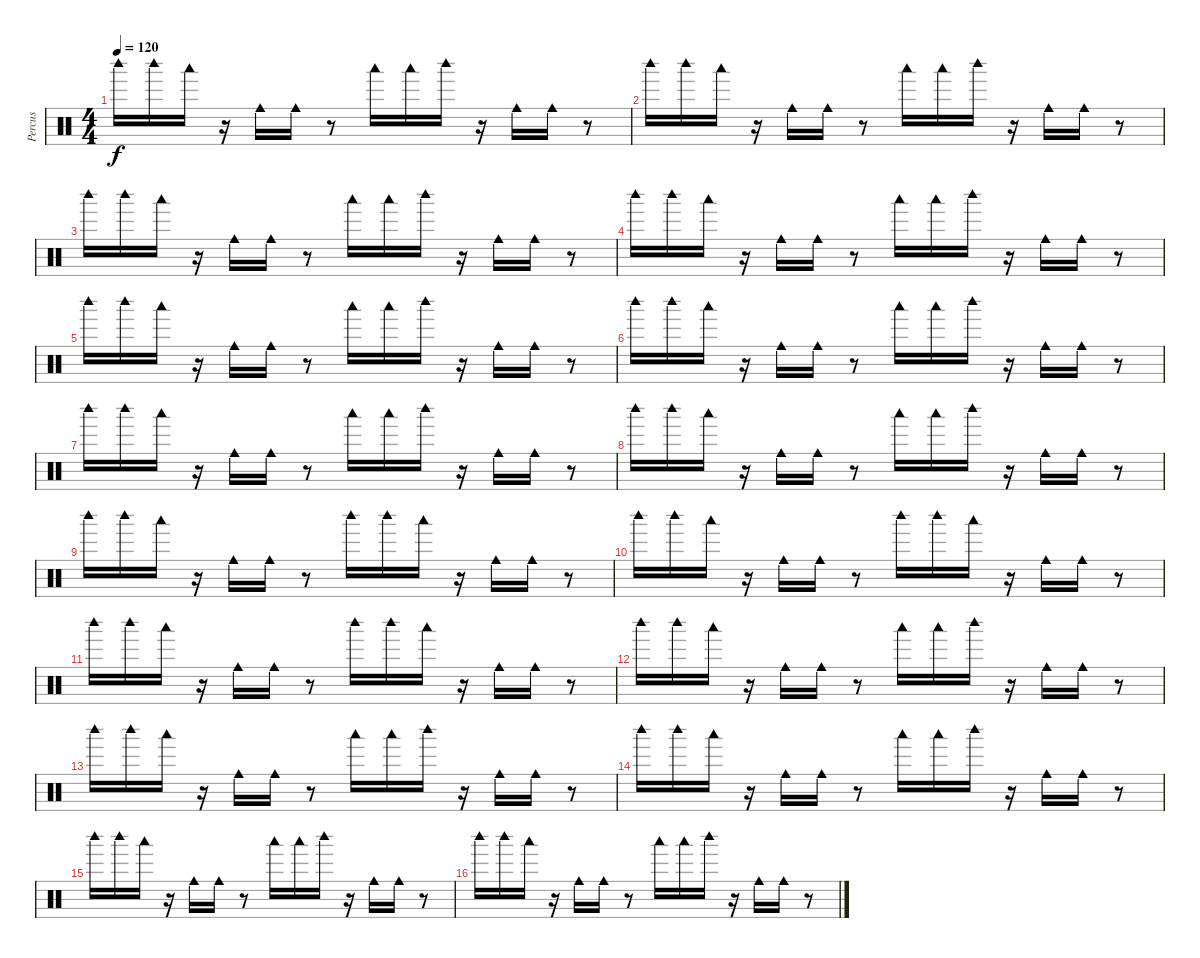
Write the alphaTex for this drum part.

\track ("Percus" "Percus") {instrument percussion}
\staff {score}
\articulation defaults
\ts (4 4)
\tempo 120
\clef neutral
\ks c "Woodblock high (hit)".16{dy f} "Woodblock high (hit)".16 "Woodblock low (hit)".16
r.16 "Cowbell medium (hit)".16 "Cowbell medium (hit)".16 r.8 "Woodblock low (hit)".16 "Woodblock low (hit)".16 "Woodblock high (hit)".16 r.16 "Cowbell medium (hit)".16 "Cowbell medium (hit)".16 r.8 |
"Woodblock high (hit)".16 "Woodblock high (hit)".16 "Woodblock low (hit)".16 r.16 "Cowbell medium (hit)".16 "Cowbell medium (hit)".16 r.8 "Woodblock low (hit)".16 "Woodblock low (hit)".16 "Woodblock high (hit)".16 r.16 "Cowbell medium (hit)".16 "Cowbell medium (hit)".16 r.8 |
"Woodblock high (hit)".16 "Woodblock high (hit)".16 "Woodblock low (hit)".16 r.16 "Cowbell medium (hit)".16 "Cowbell medium (hit)".16 r.8 "Woodblock low (hit)".16 "Woodblock low (hit)".16 "Woodblock high (hit)".16 r.16 "Cowbell medium (hit)".16 "Cowbell medium (hit)".16 r.8 |
"Woodblock high (hit)".16 "Woodblock high (hit)".16 "Woodblock low (hit)".16 r.16 "Cowbell medium (hit)".16 "Cowbell medium (hit)".16 r.8 "Woodblock low (hit)".16 "Woodblock low (hit)".16 "Woodblock high (hit)".16 r.16 "Cowbell medium (hit)".16 "Cowbell medium (hit)".16 r.8 |
"Woodblock high (hit)".16 "Woodblock high (hit)".16 "Woodblock low (hit)".16 r.16 "Cowbell medium (hit)".16 "Cowbell medium (hit)".16 r.8 "Woodblock low (hit)".16 "Woodblock low (hit)".16 "Woodblock high (hit)".16 r.16 "Cowbell medium (hit)".16 "Cowbell medium (hit)".16 r.8 |
"Woodblock high (hit)".16 "Woodblock high (hit)".16 "Woodblock low (hit)".16 r.16 "Cowbell medium (hit)".16 "Cowbell medium (hit)".16 r.8 "Woodblock low (hit)".16 "Woodblock low (hit)".16 "Woodblock high (hit)".16 r.16 "Cowbell medium (hit)".16 "Cowbell medium (hit)".16 r.8 |
"Woodblock high (hit)".16 "Woodblock high (hit)".16 "Woodblock low (hit)".16 r.16 "Cowbell medium (hit)".16 "Cowbell medium (hit)".16 r.8 "Woodblock low (hit)".16 "Woodblock low (hit)".16 "Woodblock high (hit)".16 r.16 "Cowbell medium (hit)".16 "Cowbell medium (hit)".16 r.8 |
"Woodblock high (hit)".16 "Woodblock high (hit)".16 "Woodblock low (hit)".16 r.16 "Cowbell medium (hit)".16 "Cowbell medium (hit)".16 r.8 "Woodblock low (hit)".16 "Woodblock low (hit)".16 "Woodblock high (hit)".16 r.16 "Cowbell medium (hit)".16 "Cowbell medium (hit)".16 r.8 |
"Woodblock high (hit)".16 "Woodblock high (hit)".16 "Woodblock low (hit)".16 r.16 "Cowbell medium (hit)".16 "Cowbell medium (hit)".16 r.8 "Woodblock high (hit)".16 "Woodblock high (hit)".16 "Woodblock low (hit)".16 r.16 "Cowbell medium (hit)".16 "Cowbell medium (hit)".16 r.8 |
"Woodblock high (hit)".16 "Woodblock high (hit)".16 "Woodblock low (hit)".16 r.16 "Cowbell medium (hit)".16 "Cowbell medium (hit)".16 r.8 "Woodblock high (hit)".16 "Woodblock high (hit)".16 "Woodblock low (hit)".16 r.16 "Cowbell medium (hit)".16 "Cowbell medium (hit)".16 r.8 |
"Woodblock high (hit)".16 "Woodblock high (hit)".16 "Woodblock low (hit)".16 r.16 "Cowbell medium (hit)".16 "Cowbell medium (hit)".16 r.8 "Woodblock high (hit)".16 "Woodblock high (hit)".16 "Woodblock low (hit)".16 r.16 "Cowbell medium (hit)".16 "Cowbell medium (hit)".16 r.8 |
"Woodblock high (hit)".16 "Woodblock high (hit)".16 "Woodblock low (hit)".16 r.16 "Cowbell medium (hit)".16 "Cowbell medium (hit)".16 r.8 "Woodblock low (hit)".16 "Woodblock low (hit)".16 "Woodblock high (hit)".16 r.16 "Cowbell medium (hit)".16 "Cowbell medium (hit)".16 r.8 |
"Woodblock high (hit)".16 "Woodblock high (hit)".16 "Woodblock low (hit)".16 r.16 "Cowbell medium (hit)".16 "Cowbell medium (hit)".16 r.8 "Woodblock low (hit)".16 "Woodblock low (hit)".16 "Woodblock high (hit)".16 r.16 "Cowbell medium (hit)".16 "Cowbell medium (hit)".16 r.8 |
"Woodblock high (hit)".16 "Woodblock high (hit)".16 "Woodblock low (hit)".16 r.16 "Cowbell medium (hit)".16 "Cowbell medium (hit)".16 r.8 "Woodblock low (hit)".16 "Woodblock low (hit)".16 "Woodblock high (hit)".16 r.16 "Cowbell medium (hit)".16 "Cowbell medium (hit)".16 r.8 |
"Woodblock high (hit)".16 "Woodblock high (hit)".16 "Woodblock low (hit)".16 r.16 "Cowbell medium (hit)".16 "Cowbell medium (hit)".16 r.8 "Woodblock low (hit)".16 "Woodblock low (hit)".16 "Woodblock high (hit)".16 r.16 "Cowbell medium (hit)".16 "Cowbell medium (hit)".16 r.8 |
"Woodblock high (hit)".16 "Woodblock high (hit)".16 "Woodblock low (hit)".16 r.16 "Cowbell medium (hit)".16 "Cowbell medium (hit)".16 r.8 "Woodblock low (hit)".16 "Woodblock low (hit)".16 "Woodblock high (hit)".16 r.16 "Cowbell medium (hit)".16 "Cowbell medium (hit)".16 r.8
